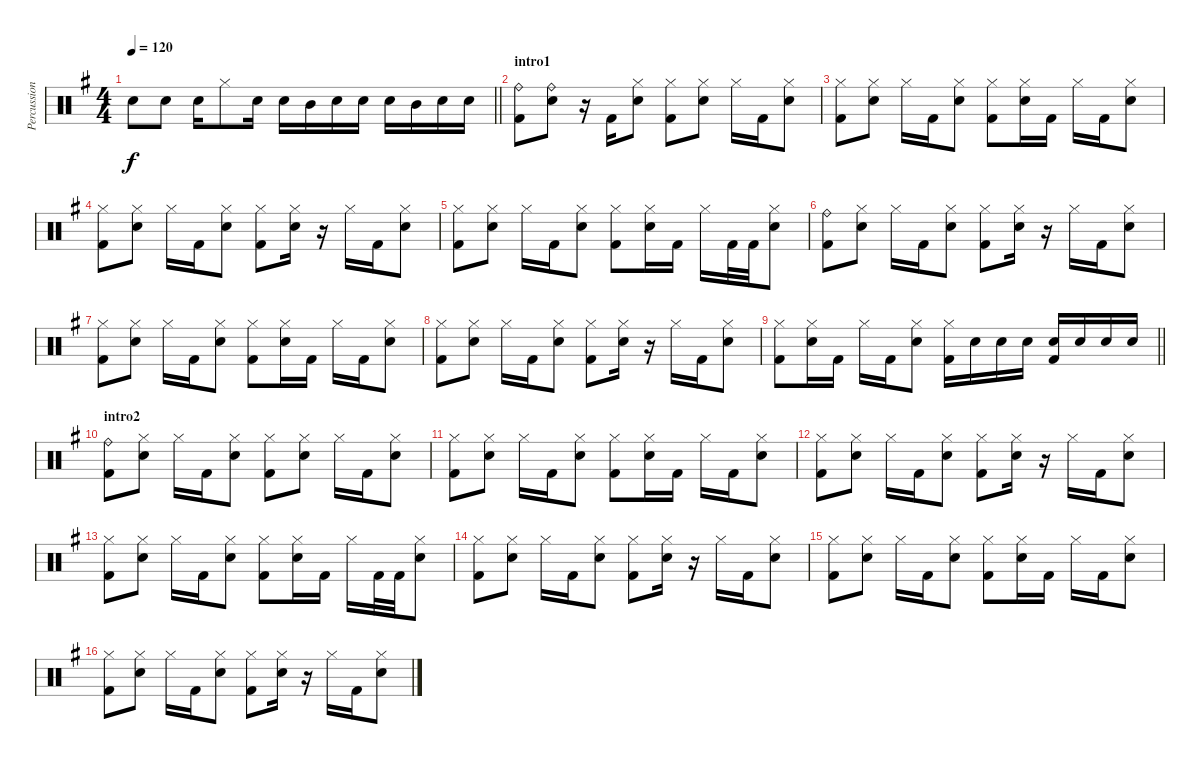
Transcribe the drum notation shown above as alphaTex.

\track ("Percussion" "Percussion") {instrument percussion}
\staff {score}
\articulation defaults
\ts (4 4)
\tempo 120
\clef neutral
\barLineRight lightlight
\ks eminor "Snare (hit) 2".8{dy f} "Snare (hit) 2".8 "Snare (hit) 2".16 "Hi-Hat (closed)".8 "Snare (hit) 2".16 "Snare (hit) 2".16 "Mid Tom (hit)".16 "Snare (hit) 2".16 "Snare (hit) 2".16 "Snare (hit) 2".16 "Mid Tom (hit)".16 "Snare (hit) 2".16 "Snare (hit) 2".16
|
\section ("" "intro1")
("Ride (bell)" "Kick (hit) 2").8 ("Ride (bell)" "Snare (hit) 2").8 r.16 "Kick (hit) 2".16 ("Hi-Hat (closed)" "Snare (hit) 2").8 ("Hi-Hat (closed)" "Kick (hit) 2").8 ("Hi-Hat (closed)" "Snare (hit) 2").8 "Hi-Hat (closed)".16 "Kick (hit) 2".16 ("Hi-Hat (closed)" "Snare (hit) 2").8 |
("Hi-Hat (closed)" "Kick (hit) 2").8 ("Hi-Hat (closed)" "Snare (hit) 2").8 "Hi-Hat (closed)".16 "Kick (hit) 2".16 ("Hi-Hat (closed)" "Snare (hit) 2").8 ("Hi-Hat (closed)" "Kick (hit) 2").8 ("Hi-Hat (closed)" "Snare (hit) 2").16 "Kick (hit) 2".16 "Hi-Hat (closed)".16 "Kick (hit) 2".16 ("Hi-Hat (closed)" "Snare (hit) 2").8 |
("Hi-Hat (closed)" "Kick (hit) 2").8 ("Hi-Hat (closed)" "Snare (hit) 2").8 "Hi-Hat (closed)".16 "Kick (hit) 2".16 ("Hi-Hat (closed)" "Snare (hit) 2").8 ("Hi-Hat (closed)" "Kick (hit) 2").8 ("Hi-Hat (closed)" "Snare (hit) 2").16 r.16 "Hi-Hat (closed)".16 "Kick (hit) 2".16 ("Hi-Hat (closed)" "Snare (hit) 2").8 |
("Hi-Hat (closed)" "Kick (hit) 2").8 ("Hi-Hat (closed)" "Snare (hit) 2").8 "Hi-Hat (closed)".16 "Kick (hit) 2".16 ("Hi-Hat (closed)" "Snare (hit) 2").8 ("Hi-Hat (closed)" "Kick (hit) 2").8 ("Hi-Hat (closed)" "Snare (hit) 2").16 "Kick (hit) 2".16 "Hi-Hat (closed)".16 "Kick (hit) 2".32 "Kick (hit) 2".32 ("Hi-Hat (closed)" "Snare (hit) 2").8 |
("Ride (bell)" "Kick (hit) 2").8 ("Hi-Hat (closed)" "Snare (hit) 2").8 "Hi-Hat (closed)".16 "Kick (hit) 2".16 ("Hi-Hat (closed)" "Snare (hit) 2").8 ("Hi-Hat (closed)" "Kick (hit) 2").8 ("Hi-Hat (closed)" "Snare (hit) 2").16 r.16 "Hi-Hat (closed)".16 "Kick (hit) 2".16 ("Hi-Hat (closed)" "Snare (hit) 2").8 |
("Hi-Hat (closed)" "Kick (hit) 2").8 ("Hi-Hat (closed)" "Snare (hit) 2").8 "Hi-Hat (closed)".16 "Kick (hit) 2".16 ("Hi-Hat (closed)" "Snare (hit) 2").8 ("Hi-Hat (closed)" "Kick (hit) 2").8 ("Hi-Hat (closed)" "Snare (hit) 2").16 "Kick (hit) 2".16 "Hi-Hat (closed)".16 "Kick (hit) 2".16 ("Hi-Hat (closed)" "Snare (hit) 2").8 |
("Hi-Hat (closed)" "Kick (hit) 2").8 ("Hi-Hat (closed)" "Snare (hit) 2").8 "Hi-Hat (closed)".16 "Kick (hit) 2".16 ("Hi-Hat (closed)" "Snare (hit) 2").8 ("Hi-Hat (closed)" "Kick (hit) 2").8 ("Hi-Hat (closed)" "Snare (hit) 2").16 r.16 "Hi-Hat (closed)".16 "Kick (hit) 2".16 ("Hi-Hat (closed)" "Snare (hit) 2").8 |
\barLineRight lightlight
("Hi-Hat (closed)" "Kick (hit) 2").8 ("Hi-Hat (closed)" "Snare (hit) 2").16 "Kick (hit) 2".16 "Hi-Hat (closed)".16 "Kick (hit) 2".16 ("Hi-Hat (closed)" "Snare (hit) 2").8 ("Hi-Hat (closed)" "Kick (hit) 2").16 "Snare (hit) 2".16 "Snare (hit) 2".16 "Snare (hit) 2".16 ("Snare (hit) 2" "Kick (hit) 2").16 "Snare (hit) 2".16 "Snare (hit) 2".16 "Snare (hit) 2".16 |
\section ("" "intro2")
("Ride (bell)" "Kick (hit) 2").8 ("Hi-Hat (closed)" "Snare (hit) 2").8 "Hi-Hat (closed)".16 "Kick (hit) 2".16 ("Hi-Hat (closed)" "Snare (hit) 2").8 ("Hi-Hat (closed)" "Kick (hit) 2").8 ("Hi-Hat (closed)" "Snare (hit) 2").8 "Hi-Hat (closed)".16 "Kick (hit) 2".16 ("Hi-Hat (closed)" "Snare (hit) 2").8 |
("Hi-Hat (closed)" "Kick (hit) 2").8 ("Hi-Hat (closed)" "Snare (hit) 2").8 "Hi-Hat (closed)".16 "Kick (hit) 2".16 ("Hi-Hat (closed)" "Snare (hit) 2").8 ("Hi-Hat (closed)" "Kick (hit) 2").8 ("Hi-Hat (closed)" "Snare (hit) 2").16 "Kick (hit) 2".16 "Hi-Hat (closed)".16 "Kick (hit) 2".16 ("Hi-Hat (closed)" "Snare (hit) 2").8 |
("Hi-Hat (closed)" "Kick (hit) 2").8 ("Hi-Hat (closed)" "Snare (hit) 2").8 "Hi-Hat (closed)".16 "Kick (hit) 2".16 ("Hi-Hat (closed)" "Snare (hit) 2").8 ("Hi-Hat (closed)" "Kick (hit) 2").8 ("Hi-Hat (closed)" "Snare (hit) 2").16 r.16 "Hi-Hat (closed)".16 "Kick (hit) 2".16 ("Hi-Hat (closed)" "Snare (hit) 2").8 |
("Hi-Hat (closed)" "Kick (hit) 2").8 ("Hi-Hat (closed)" "Snare (hit) 2").8 "Hi-Hat (closed)".16 "Kick (hit) 2".16 ("Hi-Hat (closed)" "Snare (hit) 2").8 ("Hi-Hat (closed)" "Kick (hit) 2").8 ("Hi-Hat (closed)" "Snare (hit) 2").16 "Kick (hit) 2".16 "Hi-Hat (closed)".16 "Kick (hit) 2".32 "Kick (hit) 2".32 ("Hi-Hat (closed)" "Snare (hit) 2").8 |
("Hi-Hat (closed)" "Kick (hit) 2").8 ("Hi-Hat (closed)" "Snare (hit) 2").8 "Hi-Hat (closed)".16 "Kick (hit) 2".16 ("Hi-Hat (closed)" "Snare (hit) 2").8 ("Hi-Hat (closed)" "Kick (hit) 2").8 ("Hi-Hat (closed)" "Snare (hit) 2").16 r.16 "Hi-Hat (closed)".16 "Kick (hit) 2".16 ("Hi-Hat (closed)" "Snare (hit) 2").8 |
("Hi-Hat (closed)" "Kick (hit) 2").8 ("Hi-Hat (closed)" "Snare (hit) 2").8 "Hi-Hat (closed)".16 "Kick (hit) 2".16 ("Hi-Hat (closed)" "Snare (hit) 2").8 ("Hi-Hat (closed)" "Kick (hit) 2").8 ("Hi-Hat (closed)" "Snare (hit) 2").16 "Kick (hit) 2".16 "Hi-Hat (closed)".16 "Kick (hit) 2".16 ("Hi-Hat (closed)" "Snare (hit) 2").8 |
("Hi-Hat (closed)" "Kick (hit) 2").8 ("Hi-Hat (closed)" "Snare (hit) 2").8 "Hi-Hat (closed)".16 "Kick (hit) 2".16 ("Hi-Hat (closed)" "Snare (hit) 2").8 ("Hi-Hat (closed)" "Kick (hit) 2").8 ("Hi-Hat (closed)" "Snare (hit) 2").16 r.16 "Hi-Hat (closed)".16 "Kick (hit) 2".16 ("Hi-Hat (closed)" "Snare (hit) 2").8
